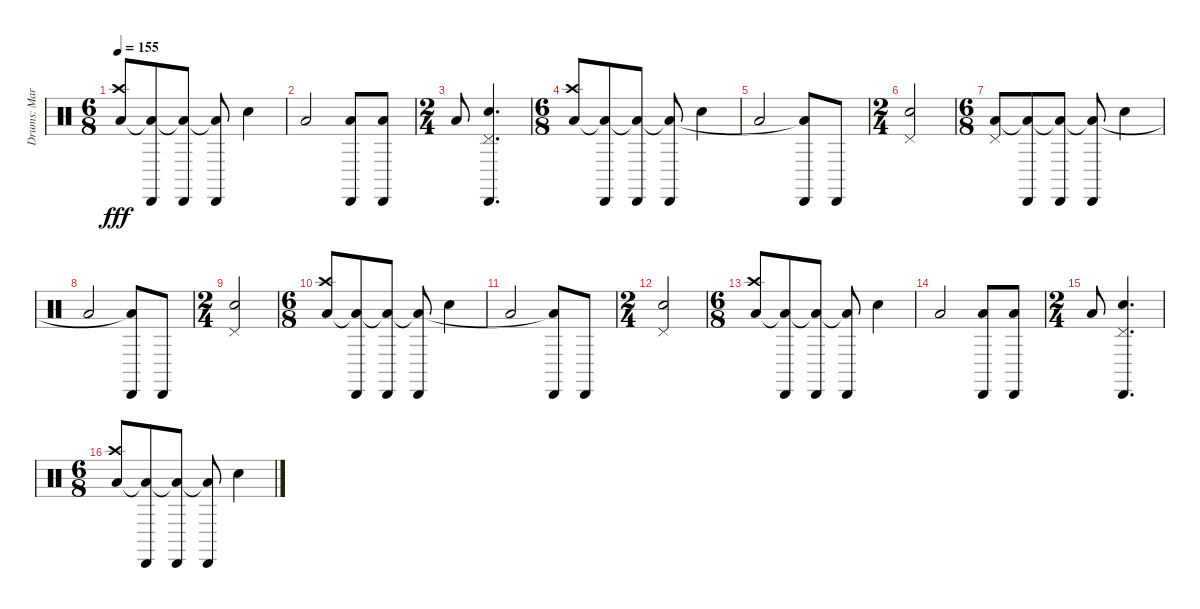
\track ("Drums: Mark Cross" "Drums: Mar") {instrument percussion}
\staff {score}
\articulation defaults
\ts (6 8)
\tempo 155
\clef neutral
\ks c
("Crash high (hit)" "Low Tom (hit)").8{dy fff} ("Cabasa (hit)" "Low Tom (hit)"{t}).8 ("Cabasa (hit)" "Low Tom (hit)"{t}).8 ("Cabasa (hit)" "Low Tom (hit)"{t}).8 "Snare (hit) 2".4 |
"Low Tom (hit)".2 ("Cabasa (hit)" "Low Tom (hit)").8 ("Cabasa (hit)" "Low Tom (hit)").8 |
\ts (2 4)
"Low Tom (hit)".8 ("Pedal Hi-Hat (hit)" "Snare (hit) 2" "Cabasa (hit)").4{d} |
\ts (6 8)
("Crash high (hit)" "Low Tom (hit)").8 ("Cabasa (hit)" "Low Tom (hit)"{t}).8 ("Cabasa (hit)" "Low Tom (hit)"{t}).8 ("Cabasa (hit)" "Low Tom (hit)"{t}).8 "Snare (hit) 2".4 |
"Low Tom (hit)".2 ("Cabasa (hit)" "Low Tom (hit)"{t}).8 "Cabasa (hit)".8 |
\ts (2 4)
("Pedal Hi-Hat (hit)" "Snare (hit) 2").2 |
\ts (6 8)
("Pedal Hi-Hat (hit)" "Low Tom (hit)").8 ("Cabasa (hit)" "Low Tom (hit)"{t}).8 ("Cabasa (hit)" "Low Tom (hit)"{t}).8 ("Cabasa (hit)" "Low Tom (hit)"{t}).8 "Snare (hit) 2".4 |
"Low Tom (hit)".2 ("Cabasa (hit)" "Low Tom (hit)"{t}).8 "Cabasa (hit)".8 |
\ts (2 4)
("Pedal Hi-Hat (hit)" "Snare (hit) 2").2 |
\ts (6 8)
("Crash high (hit)" "Low Tom (hit)").8 ("Cabasa (hit)" "Low Tom (hit)"{t}).8 ("Cabasa (hit)" "Low Tom (hit)"{t}).8 ("Cabasa (hit)" "Low Tom (hit)"{t}).8 "Snare (hit) 2".4 |
"Low Tom (hit)".2 ("Cabasa (hit)" "Low Tom (hit)"{t}).8 "Cabasa (hit)".8 |
\ts (2 4)
("Pedal Hi-Hat (hit)" "Snare (hit) 2").2 |
\ts (6 8)
("Crash high (hit)" "Low Tom (hit)").8 ("Cabasa (hit)" "Low Tom (hit)"{t}).8 ("Cabasa (hit)" "Low Tom (hit)"{t}).8 ("Cabasa (hit)" "Low Tom (hit)"{t}).8 "Snare (hit) 2".4 |
"Low Tom (hit)".2 ("Cabasa (hit)" "Low Tom (hit)").8 ("Cabasa (hit)" "Low Tom (hit)").8 |
\ts (2 4)
"Low Tom (hit)".8 ("Pedal Hi-Hat (hit)" "Snare (hit) 2" "Cabasa (hit)").4{d} |
\ts (6 8)
("Crash high (hit)" "Low Tom (hit)").8 ("Cabasa (hit)" "Low Tom (hit)"{t}).8 ("Cabasa (hit)" "Low Tom (hit)"{t}).8 ("Cabasa (hit)" "Low Tom (hit)"{t}).8 "Snare (hit) 2".4
